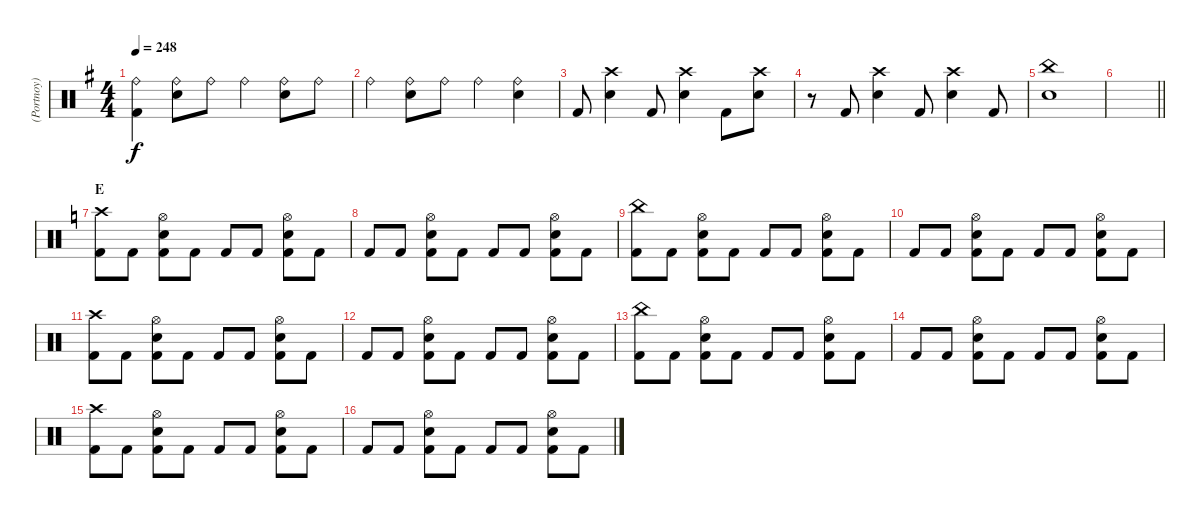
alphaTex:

\track ("(Portnoy) Drums" "(Portnoy) ") {instrument percussion}
\staff {score}
\articulation defaults
\ts (4 4)
\tempo 248
\clef neutral
\ks eminor
("Ride (bell)" "Kick (hit) 2").4{dy f} ("Ride (bell)" "Snare (hit) 2").8 "Ride (bell)".8 "Ride (bell)".4 ("Ride (bell)" "Snare (hit) 2").8 "Ride (bell)".8 |
"Ride (bell)".4 ("Ride (bell)" "Snare (hit) 2").8 "Ride (bell)".8 "Ride (bell)".4 ("Ride (bell)" "Snare (hit) 2").4 |
"Kick (hit) 2".8 ("Crash high (hit)" "Snare (hit) 2").4 "Kick (hit) 2".8 ("Crash high (hit)" "Snare (hit) 2").4 "Kick (hit) 2".8 ("Crash high (hit)" "Snare (hit) 2").8 |
r.8 "Kick (hit) 2".8 ("Crash high (hit)" "Snare (hit) 2").4 "Kick (hit) 2".8 ("Crash high (hit)" "Snare (hit) 2").4 "Kick (hit) 2".8 |
("China (hit)" "Snare (hit) 2").1 |
\barLineRight lightlight
|
\section ("" "E")
\ks aminor
("Crash high (hit)" "Kick (hit) 2").8 "Kick (hit) 2".8 ("Hi-Hat (open)" "Snare (hit) 2" "Kick (hit) 2").8 "Kick (hit) 2".8 "Kick (hit) 2".8 "Kick (hit) 2".8 ("Hi-Hat (open)" "Snare (hit) 2" "Kick (hit) 2").8 "Kick (hit) 2".8 |
"Kick (hit) 2".8 "Kick (hit) 2".8 ("Hi-Hat (open)" "Snare (hit) 2" "Kick (hit) 2").8 "Kick (hit) 2".8 "Kick (hit) 2".8 "Kick (hit) 2".8 ("Hi-Hat (open)" "Snare (hit) 2" "Kick (hit) 2").8 "Kick (hit) 2".8 |
("China (hit)" "Kick (hit) 2").8 "Kick (hit) 2".8 ("Hi-Hat (open)" "Snare (hit) 2" "Kick (hit) 2").8 "Kick (hit) 2".8 "Kick (hit) 2".8 "Kick (hit) 2".8 ("Hi-Hat (open)" "Snare (hit) 2" "Kick (hit) 2").8 "Kick (hit) 2".8 |
"Kick (hit) 2".8 "Kick (hit) 2".8 ("Hi-Hat (open)" "Snare (hit) 2" "Kick (hit) 2").8 "Kick (hit) 2".8 "Kick (hit) 2".8 "Kick (hit) 2".8 ("Hi-Hat (open)" "Snare (hit) 2" "Kick (hit) 2").8 "Kick (hit) 2".8 |
("Crash high (hit)" "Kick (hit) 2").8 "Kick (hit) 2".8 ("Hi-Hat (open)" "Snare (hit) 2" "Kick (hit) 2").8 "Kick (hit) 2".8 "Kick (hit) 2".8 "Kick (hit) 2".8 ("Hi-Hat (open)" "Snare (hit) 2" "Kick (hit) 2").8 "Kick (hit) 2".8 |
"Kick (hit) 2".8 "Kick (hit) 2".8 ("Hi-Hat (open)" "Snare (hit) 2" "Kick (hit) 2").8 "Kick (hit) 2".8 "Kick (hit) 2".8 "Kick (hit) 2".8 ("Hi-Hat (open)" "Snare (hit) 2" "Kick (hit) 2").8 "Kick (hit) 2".8 |
("China (hit)" "Kick (hit) 2").8 "Kick (hit) 2".8 ("Hi-Hat (open)" "Snare (hit) 2" "Kick (hit) 2").8 "Kick (hit) 2".8 "Kick (hit) 2".8 "Kick (hit) 2".8 ("Hi-Hat (open)" "Snare (hit) 2" "Kick (hit) 2").8 "Kick (hit) 2".8 |
"Kick (hit) 2".8 "Kick (hit) 2".8 ("Hi-Hat (open)" "Snare (hit) 2" "Kick (hit) 2").8 "Kick (hit) 2".8 "Kick (hit) 2".8 "Kick (hit) 2".8 ("Hi-Hat (open)" "Snare (hit) 2" "Kick (hit) 2").8 "Kick (hit) 2".8 |
("Crash high (hit)" "Kick (hit) 2").8 "Kick (hit) 2".8 ("Hi-Hat (open)" "Snare (hit) 2" "Kick (hit) 2").8 "Kick (hit) 2".8 "Kick (hit) 2".8 "Kick (hit) 2".8 ("Hi-Hat (open)" "Snare (hit) 2" "Kick (hit) 2").8 "Kick (hit) 2".8 |
"Kick (hit) 2".8 "Kick (hit) 2".8 ("Hi-Hat (open)" "Snare (hit) 2" "Kick (hit) 2").8 "Kick (hit) 2".8 "Kick (hit) 2".8 "Kick (hit) 2".8 ("Hi-Hat (open)" "Snare (hit) 2" "Kick (hit) 2").8 "Kick (hit) 2".8
